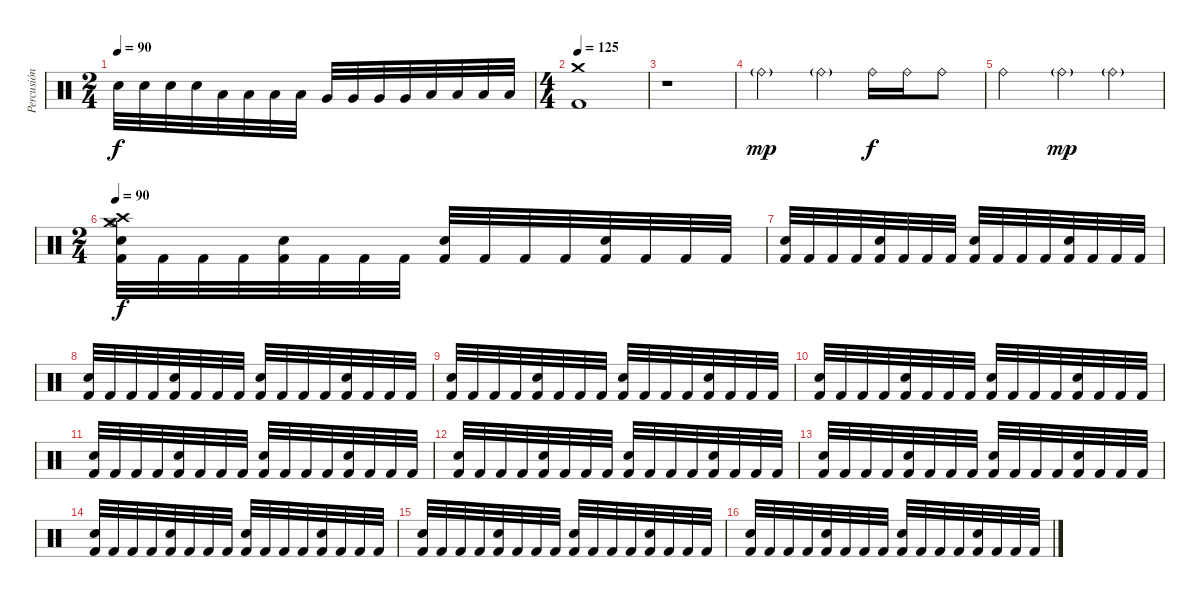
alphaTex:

\track ("Percusión" "Percusión") {instrument percussion}
\staff {score}
\articulation defaults
\ts (2 4)
\tempo 90
\clef neutral
\ks c "Electric Snare (hit)".32{dy f} "Electric Snare (hit)".32 "Electric Snare (hit)".32 "Electric Snare (hit)".32 "Low Tom (hit)".32 "Low Tom (hit)".32 "Low Tom (hit)".32 "Low Tom (hit)".32 "Very Low Tom (hit)".32 "Very Low Tom (hit)".32 "Very Low Tom (hit)".32 "Very Low Tom (hit)".32 "Low Floor Tom (hit)".32 "Low Floor Tom (hit)".32 "Low Floor Tom (hit)".32 "Low Floor Tom (hit)".32
|
\ts (4 4)
\tempo 125
("Kick (hit) 2" "Crash medium (hit)").1 |
r.1 |
"Ride (bell)"{g}.2{dy mp} "Ride (bell)"{g}.4 "Ride (bell)".16{dy f} "Ride (bell)".16 "Ride (bell)".8 |
"Ride (bell)".2 "Ride (bell)"{g}.4{dy mp} "Ride (bell)"{g}.4 |
\ts (2 4)
\tempo 90
("Crash high (hit)" "Hi-Hat (open)" "Crash medium (hit)" "Electric Snare (hit)" "Kick (hit) 2").32{dy f} "Kick (hit) 2".32 "Kick (hit) 2".32 "Kick (hit) 2".32 ("Electric Snare (hit)" "Kick (hit) 2").32 "Kick (hit) 2".32 "Kick (hit) 2".32 "Kick (hit) 2".32 ("Electric Snare (hit)" "Kick (hit) 2").32 "Kick (hit) 2".32 "Kick (hit) 2".32 "Kick (hit) 2".32 ("Electric Snare (hit)" "Kick (hit) 2").32 "Kick (hit) 2".32 "Kick (hit) 2".32 "Kick (hit) 2".32 |
("Electric Snare (hit)" "Kick (hit) 2").32 "Kick (hit) 2".32 "Kick (hit) 2".32 "Kick (hit) 2".32 ("Electric Snare (hit)" "Kick (hit) 2").32 "Kick (hit) 2".32 "Kick (hit) 2".32 "Kick (hit) 2".32 ("Electric Snare (hit)" "Kick (hit) 2").32 "Kick (hit) 2".32 "Kick (hit) 2".32 "Kick (hit) 2".32 ("Electric Snare (hit)" "Kick (hit) 2").32 "Kick (hit) 2".32 "Kick (hit) 2".32 "Kick (hit) 2".32 |
("Electric Snare (hit)" "Kick (hit) 2").32 "Kick (hit) 2".32 "Kick (hit) 2".32 "Kick (hit) 2".32 ("Electric Snare (hit)" "Kick (hit) 2").32 "Kick (hit) 2".32 "Kick (hit) 2".32 "Kick (hit) 2".32 ("Electric Snare (hit)" "Kick (hit) 2").32 "Kick (hit) 2".32 "Kick (hit) 2".32 "Kick (hit) 2".32 ("Electric Snare (hit)" "Kick (hit) 2").32 "Kick (hit) 2".32 "Kick (hit) 2".32 "Kick (hit) 2".32 |
("Electric Snare (hit)" "Kick (hit) 2").32 "Kick (hit) 2".32 "Kick (hit) 2".32 "Kick (hit) 2".32 ("Electric Snare (hit)" "Kick (hit) 2").32 "Kick (hit) 2".32 "Kick (hit) 2".32 "Kick (hit) 2".32 ("Electric Snare (hit)" "Kick (hit) 2").32 "Kick (hit) 2".32 "Kick (hit) 2".32 "Kick (hit) 2".32 ("Electric Snare (hit)" "Kick (hit) 2").32 "Kick (hit) 2".32 "Kick (hit) 2".32 "Kick (hit) 2".32 |
("Electric Snare (hit)" "Kick (hit) 2").32 "Kick (hit) 2".32 "Kick (hit) 2".32 "Kick (hit) 2".32 ("Electric Snare (hit)" "Kick (hit) 2").32 "Kick (hit) 2".32 "Kick (hit) 2".32 "Kick (hit) 2".32 ("Electric Snare (hit)" "Kick (hit) 2").32 "Kick (hit) 2".32 "Kick (hit) 2".32 "Kick (hit) 2".32 ("Electric Snare (hit)" "Kick (hit) 2").32 "Kick (hit) 2".32 "Kick (hit) 2".32 "Kick (hit) 2".32 |
("Electric Snare (hit)" "Kick (hit) 2").32 "Kick (hit) 2".32 "Kick (hit) 2".32 "Kick (hit) 2".32 ("Electric Snare (hit)" "Kick (hit) 2").32 "Kick (hit) 2".32 "Kick (hit) 2".32 "Kick (hit) 2".32 ("Electric Snare (hit)" "Kick (hit) 2").32 "Kick (hit) 2".32 "Kick (hit) 2".32 "Kick (hit) 2".32 ("Electric Snare (hit)" "Kick (hit) 2").32 "Kick (hit) 2".32 "Kick (hit) 2".32 "Kick (hit) 2".32 |
("Electric Snare (hit)" "Kick (hit) 2").32 "Kick (hit) 2".32 "Kick (hit) 2".32 "Kick (hit) 2".32 ("Electric Snare (hit)" "Kick (hit) 2").32 "Kick (hit) 2".32 "Kick (hit) 2".32 "Kick (hit) 2".32 ("Electric Snare (hit)" "Kick (hit) 2").32 "Kick (hit) 2".32 "Kick (hit) 2".32 "Kick (hit) 2".32 ("Electric Snare (hit)" "Kick (hit) 2").32 "Kick (hit) 2".32 "Kick (hit) 2".32 "Kick (hit) 2".32 |
("Electric Snare (hit)" "Kick (hit) 2").32 "Kick (hit) 2".32 "Kick (hit) 2".32 "Kick (hit) 2".32 ("Electric Snare (hit)" "Kick (hit) 2").32 "Kick (hit) 2".32 "Kick (hit) 2".32 "Kick (hit) 2".32 ("Electric Snare (hit)" "Kick (hit) 2").32 "Kick (hit) 2".32 "Kick (hit) 2".32 "Kick (hit) 2".32 ("Electric Snare (hit)" "Kick (hit) 2").32 "Kick (hit) 2".32 "Kick (hit) 2".32 "Kick (hit) 2".32 |
("Electric Snare (hit)" "Kick (hit) 2").32 "Kick (hit) 2".32 "Kick (hit) 2".32 "Kick (hit) 2".32 ("Electric Snare (hit)" "Kick (hit) 2").32 "Kick (hit) 2".32 "Kick (hit) 2".32 "Kick (hit) 2".32 ("Electric Snare (hit)" "Kick (hit) 2").32 "Kick (hit) 2".32 "Kick (hit) 2".32 "Kick (hit) 2".32 ("Electric Snare (hit)" "Kick (hit) 2").32 "Kick (hit) 2".32 "Kick (hit) 2".32 "Kick (hit) 2".32 |
("Electric Snare (hit)" "Kick (hit) 2").32 "Kick (hit) 2".32 "Kick (hit) 2".32 "Kick (hit) 2".32 ("Electric Snare (hit)" "Kick (hit) 2").32 "Kick (hit) 2".32 "Kick (hit) 2".32 "Kick (hit) 2".32 ("Electric Snare (hit)" "Kick (hit) 2").32 "Kick (hit) 2".32 "Kick (hit) 2".32 "Kick (hit) 2".32 ("Electric Snare (hit)" "Kick (hit) 2").32 "Kick (hit) 2".32 "Kick (hit) 2".32 "Kick (hit) 2".32 |
("Electric Snare (hit)" "Kick (hit) 2").32 "Kick (hit) 2".32 "Kick (hit) 2".32 "Kick (hit) 2".32 ("Electric Snare (hit)" "Kick (hit) 2").32 "Kick (hit) 2".32 "Kick (hit) 2".32 "Kick (hit) 2".32 ("Electric Snare (hit)" "Kick (hit) 2").32 "Kick (hit) 2".32 "Kick (hit) 2".32 "Kick (hit) 2".32 ("Electric Snare (hit)" "Kick (hit) 2").32 "Kick (hit) 2".32 "Kick (hit) 2".32 "Kick (hit) 2".32
